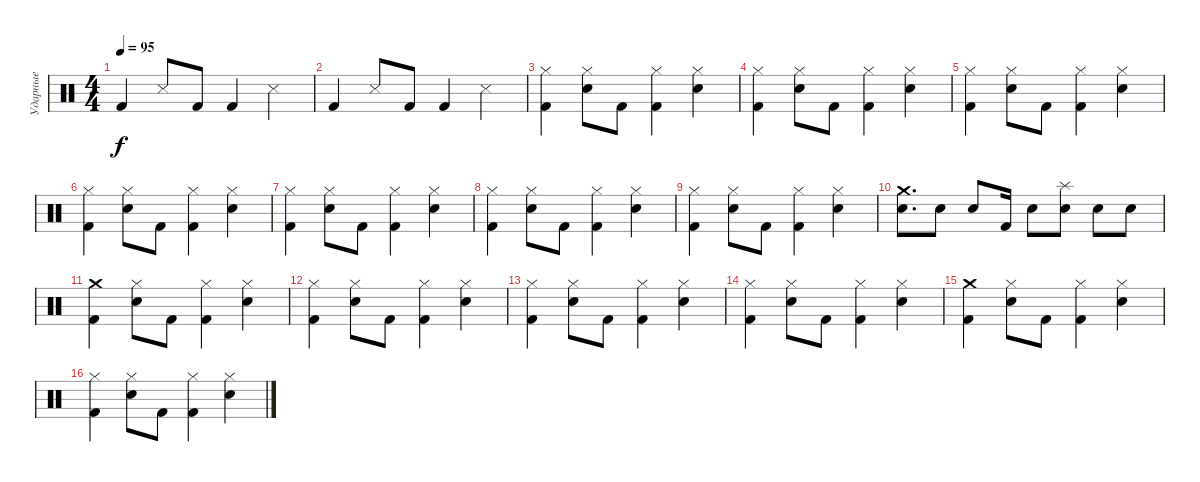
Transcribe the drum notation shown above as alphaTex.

\track ("Ударные" "Ударные") {instrument percussion}
\staff {score}
\articulation defaults
\ts (4 4)
\tempo 95
\clef neutral
\ks c "Kick (hit) 2".4{dy f} "Snare (side stick) 3".8 "Kick (hit) 2".8 "Kick (hit) 2".4 "Snare (side stick) 3".4
|
"Kick (hit) 2".4 "Snare (side stick) 3".8 "Kick (hit) 2".8 "Kick (hit) 2".4 "Snare (side stick) 3".4 |
("Hi-Hat (closed)" "Kick (hit) 2").4 ("Hi-Hat (closed)" "Snare (hit) 2").8 "Kick (hit) 2".8 ("Hi-Hat (closed)" "Kick (hit) 2").4 ("Hi-Hat (closed)" "Snare (hit) 2").4 |
("Hi-Hat (closed)" "Kick (hit) 2").4 ("Hi-Hat (closed)" "Snare (hit) 2").8 "Kick (hit) 2".8 ("Hi-Hat (closed)" "Kick (hit) 2").4 ("Hi-Hat (closed)" "Snare (hit) 2").4 |
("Hi-Hat (closed)" "Kick (hit) 2").4 ("Hi-Hat (closed)" "Snare (hit) 2").8 "Kick (hit) 2".8 ("Hi-Hat (closed)" "Kick (hit) 2").4 ("Hi-Hat (closed)" "Snare (hit) 2").4 |
("Hi-Hat (closed)" "Kick (hit) 2").4 ("Hi-Hat (closed)" "Snare (hit) 2").8 "Kick (hit) 2".8 ("Hi-Hat (closed)" "Kick (hit) 2").4 ("Hi-Hat (closed)" "Snare (hit) 2").4 |
("Hi-Hat (closed)" "Kick (hit) 2").4 ("Hi-Hat (closed)" "Snare (hit) 2").8 "Kick (hit) 2".8 ("Hi-Hat (closed)" "Kick (hit) 2").4 ("Hi-Hat (closed)" "Snare (hit) 2").4 |
("Hi-Hat (closed)" "Kick (hit) 2").4 ("Hi-Hat (closed)" "Snare (hit) 2").8 "Kick (hit) 2".8 ("Hi-Hat (closed)" "Kick (hit) 2").4 ("Hi-Hat (closed)" "Snare (hit) 2").4 |
("Hi-Hat (closed)" "Kick (hit) 2").4 ("Hi-Hat (closed)" "Snare (hit) 2").8 "Kick (hit) 2".8 ("Hi-Hat (closed)" "Kick (hit) 2").4 ("Hi-Hat (closed)" "Snare (hit) 2").4 |
("Crash medium (hit)" "Snare (hit) 2").8{d} "Snare (hit) 2".8 "Snare (hit) 2".8 "Kick (hit) 2".16 "Snare (hit) 2".8 ("Splash (hit)" "Snare (hit) 2").8 "Snare (hit) 2".8 "Snare (hit) 2".8 |
("Crash medium (hit)" "Kick (hit) 2").4 ("Hi-Hat (closed)" "Snare (hit) 2").8 "Kick (hit) 2".8 ("Hi-Hat (closed)" "Kick (hit) 2").4 ("Hi-Hat (closed)" "Snare (hit) 2").4 |
("Hi-Hat (closed)" "Kick (hit) 2").4 ("Hi-Hat (closed)" "Snare (hit) 2").8 "Kick (hit) 2".8 ("Hi-Hat (closed)" "Kick (hit) 2").4 ("Hi-Hat (closed)" "Snare (hit) 2").4 |
("Hi-Hat (closed)" "Kick (hit) 2").4 ("Hi-Hat (closed)" "Snare (hit) 2").8 "Kick (hit) 2".8 ("Hi-Hat (closed)" "Kick (hit) 2").4 ("Hi-Hat (closed)" "Snare (hit) 2").4 |
("Hi-Hat (closed)" "Kick (hit) 2").4 ("Hi-Hat (closed)" "Snare (hit) 2").8 "Kick (hit) 2".8 ("Hi-Hat (closed)" "Kick (hit) 2").4 ("Hi-Hat (closed)" "Snare (hit) 2").4 |
("Crash medium (hit)" "Kick (hit) 2").4 ("Hi-Hat (closed)" "Snare (hit) 2").8 "Kick (hit) 2".8 ("Hi-Hat (closed)" "Kick (hit) 2").4 ("Hi-Hat (closed)" "Snare (hit) 2").4 |
("Hi-Hat (closed)" "Kick (hit) 2").4 ("Hi-Hat (closed)" "Snare (hit) 2").8 "Kick (hit) 2".8 ("Hi-Hat (closed)" "Kick (hit) 2").4 ("Hi-Hat (closed)" "Snare (hit) 2").4
